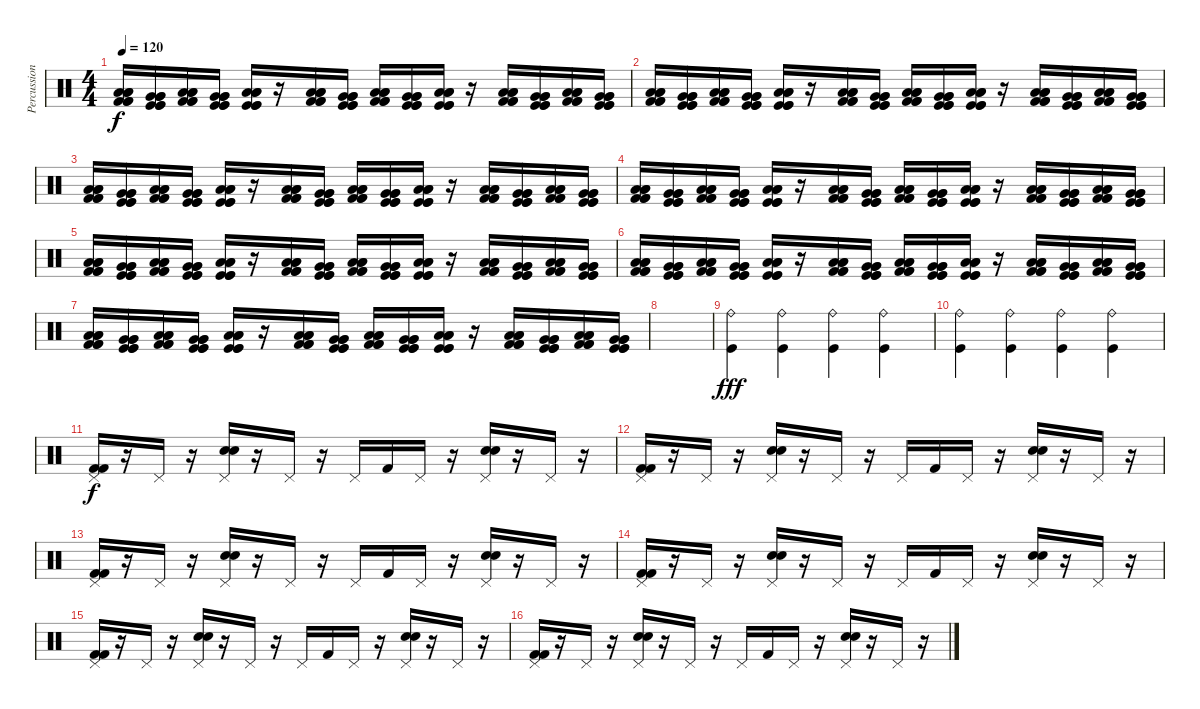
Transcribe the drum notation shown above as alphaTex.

\track ("Percussion" "Percussion") {instrument percussion}
\staff {score}
\articulation defaults
\ts (4 4)
\tempo 120
\clef neutral
\ks c
("Low Floor Tom (hit)" "Low Floor Tom (hit)" "Low Floor Tom (hit)" "Kick (hit) 2" "Kick (hit) 2" "Kick (hit) 2").16{dy f} ("Very Low Tom (hit)" "Very Low Tom (hit)" "Very Low Tom (hit)" "Kick (hit)" "Kick (hit)" "Kick (hit)").16 ("Low Floor Tom (hit)" "Low Floor Tom (hit)" "Low Floor Tom (hit)" "Kick (hit) 2" "Kick (hit) 2" "Kick (hit) 2").16 ("Very Low Tom (hit)" "Very Low Tom (hit)" "Very Low Tom (hit)" "Kick (hit)" "Kick (hit)" "Kick (hit)").16 ("Low Floor Tom (hit)" "Low Floor Tom (hit)" "Low Floor Tom (hit)" "Kick (hit)" "Kick (hit)" "Kick (hit)").16 r.16 ("Low Floor Tom (hit)" "Low Floor Tom (hit)" "Low Floor Tom (hit)" "Kick (hit) 2" "Kick (hit) 2" "Kick (hit) 2").16 ("Very Low Tom (hit)" "Very Low Tom (hit)" "Very Low Tom (hit)" "Kick (hit)" "Kick (hit)" "Kick (hit)").16 ("Low Floor Tom (hit)" "Low Floor Tom (hit)" "Low Floor Tom (hit)" "Kick (hit) 2" "Kick (hit) 2" "Kick (hit) 2").16 ("Very Low Tom (hit)" "Very Low Tom (hit)" "Very Low Tom (hit)" "Kick (hit)" "Kick (hit)" "Kick (hit)").16 ("Low Floor Tom (hit)" "Low Floor Tom (hit)" "Low Floor Tom (hit)" "Kick (hit)" "Kick (hit)" "Kick (hit)").16 r.16 ("Low Floor Tom (hit)" "Low Floor Tom (hit)" "Low Floor Tom (hit)" "Kick (hit) 2" "Kick (hit) 2" "Kick (hit) 2").16 ("Very Low Tom (hit)" "Very Low Tom (hit)" "Very Low Tom (hit)" "Kick (hit)" "Kick (hit)" "Kick (hit)").16 ("Low Floor Tom (hit)" "Low Floor Tom (hit)" "Low Floor Tom (hit)" "Kick (hit) 2" "Kick (hit) 2" "Kick (hit) 2").16 ("Very Low Tom (hit)" "Very Low Tom (hit)" "Very Low Tom (hit)" "Kick (hit)" "Kick (hit)" "Kick (hit)").16 |
("Low Floor Tom (hit)" "Low Floor Tom (hit)" "Low Floor Tom (hit)" "Kick (hit) 2" "Kick (hit) 2" "Kick (hit) 2").16 ("Very Low Tom (hit)" "Very Low Tom (hit)" "Very Low Tom (hit)" "Kick (hit)" "Kick (hit)" "Kick (hit)").16 ("Low Floor Tom (hit)" "Low Floor Tom (hit)" "Low Floor Tom (hit)" "Kick (hit) 2" "Kick (hit) 2" "Kick (hit) 2").16 ("Very Low Tom (hit)" "Very Low Tom (hit)" "Very Low Tom (hit)" "Kick (hit)" "Kick (hit)" "Kick (hit)").16 ("Low Floor Tom (hit)" "Low Floor Tom (hit)" "Low Floor Tom (hit)" "Kick (hit)" "Kick (hit)" "Kick (hit)").16 r.16 ("Low Floor Tom (hit)" "Low Floor Tom (hit)" "Low Floor Tom (hit)" "Kick (hit) 2" "Kick (hit) 2" "Kick (hit) 2").16 ("Very Low Tom (hit)" "Very Low Tom (hit)" "Very Low Tom (hit)" "Kick (hit)" "Kick (hit)" "Kick (hit)").16 ("Low Floor Tom (hit)" "Low Floor Tom (hit)" "Low Floor Tom (hit)" "Kick (hit) 2" "Kick (hit) 2" "Kick (hit) 2").16 ("Very Low Tom (hit)" "Very Low Tom (hit)" "Very Low Tom (hit)" "Kick (hit)" "Kick (hit)" "Kick (hit)").16 ("Low Floor Tom (hit)" "Low Floor Tom (hit)" "Low Floor Tom (hit)" "Kick (hit)" "Kick (hit)" "Kick (hit)").16 r.16 ("Low Floor Tom (hit)" "Low Floor Tom (hit)" "Low Floor Tom (hit)" "Kick (hit) 2" "Kick (hit) 2" "Kick (hit) 2").16 ("Very Low Tom (hit)" "Very Low Tom (hit)" "Very Low Tom (hit)" "Kick (hit)" "Kick (hit)" "Kick (hit)").16 ("Low Floor Tom (hit)" "Low Floor Tom (hit)" "Low Floor Tom (hit)" "Kick (hit) 2" "Kick (hit) 2" "Kick (hit) 2").16 ("Very Low Tom (hit)" "Very Low Tom (hit)" "Very Low Tom (hit)" "Kick (hit)" "Kick (hit)" "Kick (hit)").16 |
("Low Floor Tom (hit)" "Low Floor Tom (hit)" "Low Floor Tom (hit)" "Kick (hit) 2" "Kick (hit) 2" "Kick (hit) 2").16 ("Very Low Tom (hit)" "Very Low Tom (hit)" "Very Low Tom (hit)" "Kick (hit)" "Kick (hit)" "Kick (hit)").16 ("Low Floor Tom (hit)" "Low Floor Tom (hit)" "Low Floor Tom (hit)" "Kick (hit) 2" "Kick (hit) 2" "Kick (hit) 2").16 ("Very Low Tom (hit)" "Very Low Tom (hit)" "Very Low Tom (hit)" "Kick (hit)" "Kick (hit)" "Kick (hit)").16 ("Low Floor Tom (hit)" "Low Floor Tom (hit)" "Low Floor Tom (hit)" "Kick (hit)" "Kick (hit)" "Kick (hit)").16 r.16 ("Low Floor Tom (hit)" "Low Floor Tom (hit)" "Low Floor Tom (hit)" "Kick (hit) 2" "Kick (hit) 2" "Kick (hit) 2").16 ("Very Low Tom (hit)" "Very Low Tom (hit)" "Very Low Tom (hit)" "Kick (hit)" "Kick (hit)" "Kick (hit)").16 ("Low Floor Tom (hit)" "Low Floor Tom (hit)" "Low Floor Tom (hit)" "Kick (hit) 2" "Kick (hit) 2" "Kick (hit) 2").16 ("Very Low Tom (hit)" "Very Low Tom (hit)" "Very Low Tom (hit)" "Kick (hit)" "Kick (hit)" "Kick (hit)").16 ("Low Floor Tom (hit)" "Low Floor Tom (hit)" "Low Floor Tom (hit)" "Kick (hit)" "Kick (hit)" "Kick (hit)").16 r.16 ("Low Floor Tom (hit)" "Low Floor Tom (hit)" "Low Floor Tom (hit)" "Kick (hit) 2" "Kick (hit) 2" "Kick (hit) 2").16 ("Very Low Tom (hit)" "Very Low Tom (hit)" "Very Low Tom (hit)" "Kick (hit)" "Kick (hit)" "Kick (hit)").16 ("Low Floor Tom (hit)" "Low Floor Tom (hit)" "Low Floor Tom (hit)" "Kick (hit) 2" "Kick (hit) 2" "Kick (hit) 2").16 ("Very Low Tom (hit)" "Very Low Tom (hit)" "Very Low Tom (hit)" "Kick (hit)" "Kick (hit)" "Kick (hit)").16 |
("Low Floor Tom (hit)" "Low Floor Tom (hit)" "Low Floor Tom (hit)" "Kick (hit) 2" "Kick (hit) 2" "Kick (hit) 2").16 ("Very Low Tom (hit)" "Very Low Tom (hit)" "Very Low Tom (hit)" "Kick (hit)" "Kick (hit)" "Kick (hit)").16 ("Low Floor Tom (hit)" "Low Floor Tom (hit)" "Low Floor Tom (hit)" "Kick (hit) 2" "Kick (hit) 2" "Kick (hit) 2").16 ("Very Low Tom (hit)" "Very Low Tom (hit)" "Very Low Tom (hit)" "Kick (hit)" "Kick (hit)" "Kick (hit)").16 ("Low Floor Tom (hit)" "Low Floor Tom (hit)" "Low Floor Tom (hit)" "Kick (hit)" "Kick (hit)" "Kick (hit)").16 r.16 ("Low Floor Tom (hit)" "Low Floor Tom (hit)" "Low Floor Tom (hit)" "Kick (hit) 2" "Kick (hit) 2" "Kick (hit) 2").16 ("Very Low Tom (hit)" "Very Low Tom (hit)" "Very Low Tom (hit)" "Kick (hit)" "Kick (hit)" "Kick (hit)").16 ("Low Floor Tom (hit)" "Low Floor Tom (hit)" "Low Floor Tom (hit)" "Kick (hit) 2" "Kick (hit) 2" "Kick (hit) 2").16 ("Very Low Tom (hit)" "Very Low Tom (hit)" "Very Low Tom (hit)" "Kick (hit)" "Kick (hit)" "Kick (hit)").16 ("Low Floor Tom (hit)" "Low Floor Tom (hit)" "Low Floor Tom (hit)" "Kick (hit)" "Kick (hit)" "Kick (hit)").16 r.16 ("Low Floor Tom (hit)" "Low Floor Tom (hit)" "Low Floor Tom (hit)" "Kick (hit) 2" "Kick (hit) 2" "Kick (hit) 2").16 ("Very Low Tom (hit)" "Very Low Tom (hit)" "Very Low Tom (hit)" "Kick (hit)" "Kick (hit)" "Kick (hit)").16 ("Low Floor Tom (hit)" "Low Floor Tom (hit)" "Low Floor Tom (hit)" "Kick (hit) 2" "Kick (hit) 2" "Kick (hit) 2").16 ("Very Low Tom (hit)" "Very Low Tom (hit)" "Very Low Tom (hit)" "Kick (hit)" "Kick (hit)" "Kick (hit)").16 |
("Low Floor Tom (hit)" "Low Floor Tom (hit)" "Low Floor Tom (hit)" "Kick (hit) 2" "Kick (hit) 2" "Kick (hit) 2").16 ("Very Low Tom (hit)" "Very Low Tom (hit)" "Very Low Tom (hit)" "Kick (hit)" "Kick (hit)" "Kick (hit)").16 ("Low Floor Tom (hit)" "Low Floor Tom (hit)" "Low Floor Tom (hit)" "Kick (hit) 2" "Kick (hit) 2" "Kick (hit) 2").16 ("Very Low Tom (hit)" "Very Low Tom (hit)" "Very Low Tom (hit)" "Kick (hit)" "Kick (hit)" "Kick (hit)").16 ("Low Floor Tom (hit)" "Low Floor Tom (hit)" "Low Floor Tom (hit)" "Kick (hit)" "Kick (hit)" "Kick (hit)").16 r.16 ("Low Floor Tom (hit)" "Low Floor Tom (hit)" "Low Floor Tom (hit)" "Kick (hit) 2" "Kick (hit) 2" "Kick (hit) 2").16 ("Very Low Tom (hit)" "Very Low Tom (hit)" "Very Low Tom (hit)" "Kick (hit)" "Kick (hit)" "Kick (hit)").16 ("Low Floor Tom (hit)" "Low Floor Tom (hit)" "Low Floor Tom (hit)" "Kick (hit) 2" "Kick (hit) 2" "Kick (hit) 2").16 ("Very Low Tom (hit)" "Very Low Tom (hit)" "Very Low Tom (hit)" "Kick (hit)" "Kick (hit)" "Kick (hit)").16 ("Low Floor Tom (hit)" "Low Floor Tom (hit)" "Low Floor Tom (hit)" "Kick (hit)" "Kick (hit)" "Kick (hit)").16 r.16 ("Low Floor Tom (hit)" "Low Floor Tom (hit)" "Low Floor Tom (hit)" "Kick (hit) 2" "Kick (hit) 2" "Kick (hit) 2").16 ("Very Low Tom (hit)" "Very Low Tom (hit)" "Very Low Tom (hit)" "Kick (hit)" "Kick (hit)" "Kick (hit)").16 ("Low Floor Tom (hit)" "Low Floor Tom (hit)" "Low Floor Tom (hit)" "Kick (hit) 2" "Kick (hit) 2" "Kick (hit) 2").16 ("Very Low Tom (hit)" "Very Low Tom (hit)" "Very Low Tom (hit)" "Kick (hit)" "Kick (hit)" "Kick (hit)").16 |
("Low Floor Tom (hit)" "Low Floor Tom (hit)" "Low Floor Tom (hit)" "Kick (hit) 2" "Kick (hit) 2" "Kick (hit) 2").16 ("Very Low Tom (hit)" "Very Low Tom (hit)" "Very Low Tom (hit)" "Kick (hit)" "Kick (hit)" "Kick (hit)").16 ("Low Floor Tom (hit)" "Low Floor Tom (hit)" "Low Floor Tom (hit)" "Kick (hit) 2" "Kick (hit) 2" "Kick (hit) 2").16 ("Very Low Tom (hit)" "Very Low Tom (hit)" "Very Low Tom (hit)" "Kick (hit)" "Kick (hit)" "Kick (hit)").16 ("Low Floor Tom (hit)" "Low Floor Tom (hit)" "Low Floor Tom (hit)" "Kick (hit)" "Kick (hit)" "Kick (hit)").16 r.16 ("Low Floor Tom (hit)" "Low Floor Tom (hit)" "Low Floor Tom (hit)" "Kick (hit) 2" "Kick (hit) 2" "Kick (hit) 2").16 ("Very Low Tom (hit)" "Very Low Tom (hit)" "Very Low Tom (hit)" "Kick (hit)" "Kick (hit)" "Kick (hit)").16 ("Low Floor Tom (hit)" "Low Floor Tom (hit)" "Low Floor Tom (hit)" "Kick (hit) 2" "Kick (hit) 2" "Kick (hit) 2").16 ("Very Low Tom (hit)" "Very Low Tom (hit)" "Very Low Tom (hit)" "Kick (hit)" "Kick (hit)" "Kick (hit)").16 ("Low Floor Tom (hit)" "Low Floor Tom (hit)" "Low Floor Tom (hit)" "Kick (hit)" "Kick (hit)" "Kick (hit)").16 r.16 ("Low Floor Tom (hit)" "Low Floor Tom (hit)" "Low Floor Tom (hit)" "Kick (hit) 2" "Kick (hit) 2" "Kick (hit) 2").16 ("Very Low Tom (hit)" "Very Low Tom (hit)" "Very Low Tom (hit)" "Kick (hit)" "Kick (hit)" "Kick (hit)").16 ("Low Floor Tom (hit)" "Low Floor Tom (hit)" "Low Floor Tom (hit)" "Kick (hit) 2" "Kick (hit) 2" "Kick (hit) 2").16 ("Very Low Tom (hit)" "Very Low Tom (hit)" "Very Low Tom (hit)" "Kick (hit)" "Kick (hit)" "Kick (hit)").16 |
("Low Floor Tom (hit)" "Low Floor Tom (hit)" "Low Floor Tom (hit)" "Kick (hit) 2" "Kick (hit) 2" "Kick (hit) 2").16 ("Very Low Tom (hit)" "Very Low Tom (hit)" "Very Low Tom (hit)" "Kick (hit)" "Kick (hit)" "Kick (hit)").16 ("Low Floor Tom (hit)" "Low Floor Tom (hit)" "Low Floor Tom (hit)" "Kick (hit) 2" "Kick (hit) 2" "Kick (hit) 2").16 ("Very Low Tom (hit)" "Very Low Tom (hit)" "Very Low Tom (hit)" "Kick (hit)" "Kick (hit)" "Kick (hit)").16 ("Low Floor Tom (hit)" "Low Floor Tom (hit)" "Low Floor Tom (hit)" "Kick (hit)" "Kick (hit)" "Kick (hit)").16 r.16 ("Low Floor Tom (hit)" "Low Floor Tom (hit)" "Low Floor Tom (hit)" "Kick (hit) 2" "Kick (hit) 2" "Kick (hit) 2").16 ("Very Low Tom (hit)" "Very Low Tom (hit)" "Very Low Tom (hit)" "Kick (hit)" "Kick (hit)" "Kick (hit)").16 ("Low Floor Tom (hit)" "Low Floor Tom (hit)" "Low Floor Tom (hit)" "Kick (hit) 2" "Kick (hit) 2" "Kick (hit) 2").16 ("Very Low Tom (hit)" "Very Low Tom (hit)" "Very Low Tom (hit)" "Kick (hit)" "Kick (hit)" "Kick (hit)").16 ("Low Floor Tom (hit)" "Low Floor Tom (hit)" "Low Floor Tom (hit)" "Kick (hit)" "Kick (hit)" "Kick (hit)").16 r.16 ("Low Floor Tom (hit)" "Low Floor Tom (hit)" "Low Floor Tom (hit)" "Kick (hit) 2" "Kick (hit) 2" "Kick (hit) 2").16 ("Very Low Tom (hit)" "Very Low Tom (hit)" "Very Low Tom (hit)" "Kick (hit)" "Kick (hit)" "Kick (hit)").16 ("Low Floor Tom (hit)" "Low Floor Tom (hit)" "Low Floor Tom (hit)" "Kick (hit) 2" "Kick (hit) 2" "Kick (hit) 2").16 ("Very Low Tom (hit)" "Very Low Tom (hit)" "Very Low Tom (hit)" "Kick (hit)" "Kick (hit)" "Kick (hit)").16 |
|
("Ride (bell)" "Kick (hit)").4{dy fff} ("Ride (bell)" "Kick (hit)").4 ("Ride (bell)" "Kick (hit)").4 ("Ride (bell)" "Kick (hit)").4 |
("Ride (bell)" "Kick (hit)").4 ("Ride (bell)" "Kick (hit)").4 ("Ride (bell)" "Kick (hit)").4 ("Ride (bell)" "Kick (hit)").4 |
("Pedal Hi-Hat (hit)" "Kick (hit) 2" "Kick (hit) 2").16{dy f} r.16 "Pedal Hi-Hat (hit)".16 r.16 ("Pedal Hi-Hat (hit)" "Electric Snare (hit)" "Electric Snare (hit)").16 r.16 "Pedal Hi-Hat (hit)".16 r.16 "Pedal Hi-Hat (hit)".16 "Kick (hit) 2".16 "Pedal Hi-Hat (hit)".16 r.16 ("Pedal Hi-Hat (hit)" "Electric Snare (hit)" "Electric Snare (hit)").16 r.16 "Pedal Hi-Hat (hit)".16 r.16 |
("Pedal Hi-Hat (hit)" "Kick (hit) 2" "Kick (hit) 2").16 r.16 "Pedal Hi-Hat (hit)".16 r.16 ("Pedal Hi-Hat (hit)" "Electric Snare (hit)" "Electric Snare (hit)").16 r.16 "Pedal Hi-Hat (hit)".16 r.16 "Pedal Hi-Hat (hit)".16 "Kick (hit) 2".16 "Pedal Hi-Hat (hit)".16 r.16 ("Pedal Hi-Hat (hit)" "Electric Snare (hit)" "Electric Snare (hit)").16 r.16 "Pedal Hi-Hat (hit)".16 r.16 |
("Pedal Hi-Hat (hit)" "Kick (hit) 2" "Kick (hit) 2").16 r.16 "Pedal Hi-Hat (hit)".16 r.16 ("Pedal Hi-Hat (hit)" "Electric Snare (hit)" "Electric Snare (hit)").16 r.16 "Pedal Hi-Hat (hit)".16 r.16 "Pedal Hi-Hat (hit)".16 "Kick (hit) 2".16 "Pedal Hi-Hat (hit)".16 r.16 ("Pedal Hi-Hat (hit)" "Electric Snare (hit)" "Electric Snare (hit)").16 r.16 "Pedal Hi-Hat (hit)".16 r.16 |
("Pedal Hi-Hat (hit)" "Kick (hit) 2" "Kick (hit) 2").16 r.16 "Pedal Hi-Hat (hit)".16 r.16 ("Pedal Hi-Hat (hit)" "Electric Snare (hit)" "Electric Snare (hit)").16 r.16 "Pedal Hi-Hat (hit)".16 r.16 "Pedal Hi-Hat (hit)".16 "Kick (hit) 2".16 "Pedal Hi-Hat (hit)".16 r.16 ("Pedal Hi-Hat (hit)" "Electric Snare (hit)" "Electric Snare (hit)").16 r.16 "Pedal Hi-Hat (hit)".16 r.16 |
("Pedal Hi-Hat (hit)" "Kick (hit) 2" "Kick (hit) 2").16 r.16 "Pedal Hi-Hat (hit)".16 r.16 ("Pedal Hi-Hat (hit)" "Electric Snare (hit)" "Electric Snare (hit)").16 r.16 "Pedal Hi-Hat (hit)".16 r.16 "Pedal Hi-Hat (hit)".16 "Kick (hit) 2".16 "Pedal Hi-Hat (hit)".16 r.16 ("Pedal Hi-Hat (hit)" "Electric Snare (hit)" "Electric Snare (hit)").16 r.16 "Pedal Hi-Hat (hit)".16 r.16 |
("Pedal Hi-Hat (hit)" "Kick (hit) 2" "Kick (hit) 2").16 r.16 "Pedal Hi-Hat (hit)".16 r.16 ("Pedal Hi-Hat (hit)" "Electric Snare (hit)" "Electric Snare (hit)").16 r.16 "Pedal Hi-Hat (hit)".16 r.16 "Pedal Hi-Hat (hit)".16 "Kick (hit) 2".16 "Pedal Hi-Hat (hit)".16 r.16 ("Pedal Hi-Hat (hit)" "Electric Snare (hit)" "Electric Snare (hit)").16 r.16 "Pedal Hi-Hat (hit)".16 r.16
